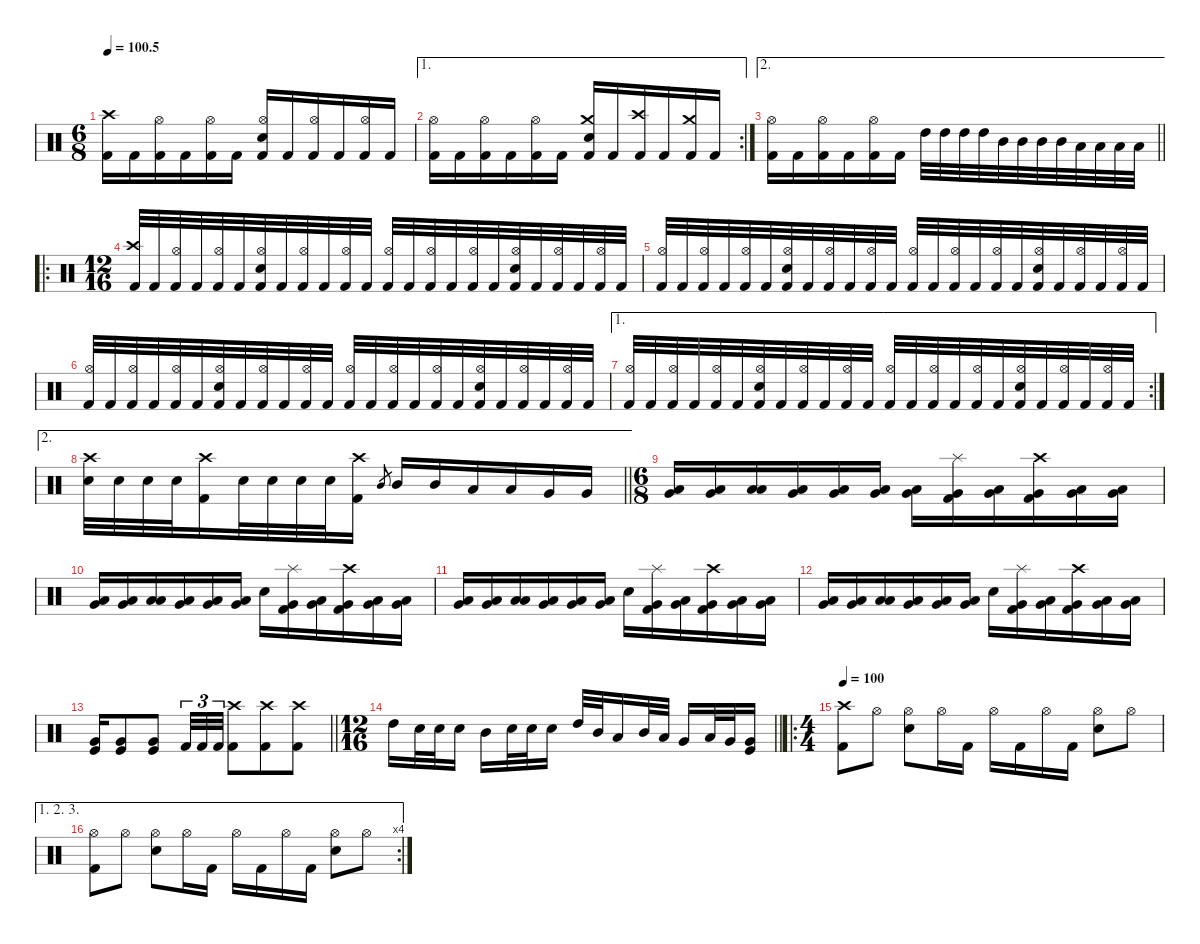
\defaultSystemsLayout 4
\hideDynamics
\bracketExtendMode nobrackets
\singleTrackTrackNamePolicy hidden
\multiTrackTrackNamePolicy hidden
\firstSystemTrackNameMode fullname
\firstSystemTrackNameOrientation horizontal
\otherSystemsTrackNameOrientation horizontal
\track ("Drums" "drm.") {instrument percussion}
\staff {score}
\articulation defaults
\ts (6 8)
\tempo
100.5
\accidentals auto
\clef neutral
\ottava regular
\simile none
\ks c
("Crash high (hit)" "Kick (hit) 2").16{dy f beam Down} "Kick (hit) 2".16{beam Down} ("Hi-Hat (open)" "Kick (hit) 2").16{dy mp beam Down} "Kick (hit) 2".16{dy f beam Down} ("Hi-Hat (open)" "Kick (hit) 2").16{dy mp beam Down} "Kick (hit) 2".16{dy f beam Down} ("Hi-Hat (open)" "Snare (hit) 2" "Kick (hit) 2").16{dy mp beam Up} "Kick (hit) 2".16{dy f beam Up} ("Hi-Hat (open)" "Kick (hit) 2").16{dy mp beam Up} "Kick (hit) 2".16{dy f beam Up} ("Hi-Hat (open)" "Kick (hit) 2").16{dy mp beam Up} "Kick (hit) 2".16{dy f beam Up} |
\ae 1
\rc 2
("Hi-Hat (open)" "Kick (hit) 2").16{dy mp beam Down} "Kick (hit) 2".16{dy f beam Down} ("Hi-Hat (open)" "Kick (hit) 2").16{dy mp beam Down} "Kick (hit) 2".16{dy f beam Down} ("Hi-Hat (open)" "Kick (hit) 2").16{dy mp beam Down} "Kick (hit) 2".16{dy f beam Down} ("Crash medium (hit)" "Snare (hit) 2" "Kick (hit) 2").16{beam Up} "Kick (hit) 2".16{beam Up} ("Crash high (hit)" "Kick (hit) 2").16{beam Up} "Kick (hit) 2".16{beam Up} ("Crash medium (hit)" "Kick (hit) 2").16{beam Up} "Kick (hit) 2".16{beam Up} |
\ae 2
\barLineRight lightlight
("Hi-Hat (open)" "Kick (hit) 2").16{dy mp beam Down} "Kick (hit) 2".16{dy f beam Down} ("Hi-Hat (open)" "Kick (hit) 2").16{dy mp beam Down} "Kick (hit) 2".16{dy f beam Down} ("Hi-Hat (open)" "Kick (hit) 2").16{dy mp beam Down} "Kick (hit) 2".16{dy f beam Down} "High Tom (hit)".32{beam Down} "High Tom (hit)".32{dy mf beam Down} "High Tom (hit)".32{dy f beam Down} "High Tom (hit)".32{dy mf beam Down} "Mid Tom (hit)".32{dy f beam Down} "Mid Tom (hit)".32{dy mf beam Down} "Mid Tom (hit)".32{dy f beam Down} "Mid Tom (hit)".32{dy mf beam Down} "Low Tom (hit)".32{dy f beam Down} "Low Tom (hit)".32{dy mf beam Down} "Low Tom (hit)".32{dy f beam Down} "Low Tom (hit)".32{dy mf beam Down} |
\ro
\ts (12 16)
\beaming (8 3 3)
("Crash high (hit)" "Kick (hit) 2").32{dy f beam Up} "Kick (hit) 2".32{beam Up} ("Hi-Hat (open)" "Kick (hit) 2").32{dy mp beam Up} "Kick (hit) 2".32{dy f beam Up} ("Hi-Hat (open)" "Kick (hit) 2").32{dy mp beam Up} "Kick (hit) 2".32{dy f beam Up} ("Hi-Hat (open)" "Snare (hit) 2" "Kick (hit) 2").32{dy mp beam Up} "Kick (hit) 2".32{dy f beam Up} ("Hi-Hat (open)" "Kick (hit) 2").32{dy mp beam Up} "Kick (hit) 2".32{dy f beam Up} ("Hi-Hat (open)" "Kick (hit) 2").32{dy mp beam Up} "Kick (hit) 2".32{dy f beam Up} ("Hi-Hat (open)" "Kick (hit) 2").32{dy mp beam Up} "Kick (hit) 2".32{dy f beam Up} ("Hi-Hat (open)" "Kick (hit) 2").32{dy mp beam Up} "Kick (hit) 2".32{dy f beam Up} ("Hi-Hat (open)" "Kick (hit) 2").32{dy mp beam Up} "Kick (hit) 2".32{dy f beam Up} ("Hi-Hat (open)" "Snare (hit) 2" "Kick (hit) 2").32{dy mp beam Up} "Kick (hit) 2".32{dy f beam Up} ("Hi-Hat (open)" "Kick (hit) 2").32{dy mp beam Up} "Kick (hit) 2".32{dy f beam Up} ("Hi-Hat (open)" "Kick (hit) 2").32{dy mp beam Up} "Kick (hit) 2".32{dy f beam Up} |
("Hi-Hat (open)" "Kick (hit) 2").32{dy mp beam Up} "Kick (hit) 2".32{dy f beam Up} ("Hi-Hat (open)" "Kick (hit) 2").32{dy mp beam Up} "Kick (hit) 2".32{dy f beam Up} ("Hi-Hat (open)" "Kick (hit) 2").32{dy mp beam Up} "Kick (hit) 2".32{dy f beam Up} ("Hi-Hat (open)" "Snare (hit) 2" "Kick (hit) 2").32{dy mp beam Up} "Kick (hit) 2".32{dy f beam Up} ("Hi-Hat (open)" "Kick (hit) 2").32{dy mp beam Up} "Kick (hit) 2".32{dy f beam Up} ("Hi-Hat (open)" "Kick (hit) 2").32{dy mp beam Up} "Kick (hit) 2".32{dy f beam Up} ("Hi-Hat (open)" "Kick (hit) 2").32{dy mp beam Up} "Kick (hit) 2".32{dy f beam Up} ("Hi-Hat (open)" "Kick (hit) 2").32{dy mp beam Up} "Kick (hit) 2".32{dy f beam Up} ("Hi-Hat (open)" "Kick (hit) 2").32{dy mp beam Up} "Kick (hit) 2".32{dy f beam Up} ("Hi-Hat (open)" "Snare (hit) 2" "Kick (hit) 2").32{dy mp beam Up} "Kick (hit) 2".32{dy f beam Up} ("Hi-Hat (open)" "Kick (hit) 2").32{dy mp beam Up} "Kick (hit) 2".32{dy f beam Up} ("Hi-Hat (open)" "Kick (hit) 2").32{dy mp beam Up} "Kick (hit) 2".32{dy f beam Up} |
("Hi-Hat (open)" "Kick (hit) 2").32{dy mp beam Up} "Kick (hit) 2".32{dy f beam Up} ("Hi-Hat (open)" "Kick (hit) 2").32{dy mp beam Up} "Kick (hit) 2".32{dy f beam Up} ("Hi-Hat (open)" "Kick (hit) 2").32{dy mp beam Up} "Kick (hit) 2".32{dy f beam Up} ("Hi-Hat (open)" "Snare (hit) 2" "Kick (hit) 2").32{dy mp beam Up} "Kick (hit) 2".32{dy f beam Up} ("Hi-Hat (open)" "Kick (hit) 2").32{dy mp beam Up} "Kick (hit) 2".32{dy f beam Up} ("Hi-Hat (open)" "Kick (hit) 2").32{dy mp beam Up} "Kick (hit) 2".32{dy f beam Up} ("Hi-Hat (open)" "Kick (hit) 2").32{dy mp beam Up} "Kick (hit) 2".32{dy f beam Up} ("Hi-Hat (open)" "Kick (hit) 2").32{dy mp beam Up} "Kick (hit) 2".32{dy f beam Up} ("Hi-Hat (open)" "Kick (hit) 2").32{dy mp beam Up} "Kick (hit) 2".32{dy f beam Up} ("Hi-Hat (open)" "Snare (hit) 2" "Kick (hit) 2").32{dy mp beam Up} "Kick (hit) 2".32{dy f beam Up} ("Hi-Hat (open)" "Kick (hit) 2").32{dy mp beam Up} "Kick (hit) 2".32{dy f beam Up} ("Hi-Hat (open)" "Kick (hit) 2").32{dy mp beam Up} "Kick (hit) 2".32{dy f beam Up} |
\ae 1
\rc 2
("Hi-Hat (open)" "Kick (hit) 2").32{dy mp beam Up} "Kick (hit) 2".32{dy f beam Up} ("Hi-Hat (open)" "Kick (hit) 2").32{dy mp beam Up} "Kick (hit) 2".32{dy f beam Up} ("Hi-Hat (open)" "Kick (hit) 2").32{dy mp beam Up} "Kick (hit) 2".32{dy f beam Up} ("Hi-Hat (open)" "Snare (hit) 2" "Kick (hit) 2").32{dy mp beam Up} "Kick (hit) 2".32{dy f beam Up} ("Hi-Hat (open)" "Kick (hit) 2").32{dy mp beam Up} "Kick (hit) 2".32{dy f beam Up} ("Hi-Hat (open)" "Kick (hit) 2").32{dy mp beam Up} "Kick (hit) 2".32{dy f beam Up} ("Hi-Hat (open)" "Kick (hit) 2").32{dy mp beam Up} "Kick (hit) 2".32{dy f beam Up} ("Hi-Hat (open)" "Kick (hit) 2").32{dy mp beam Up} "Kick (hit) 2".32{dy f beam Up} ("Hi-Hat (open)" "Kick (hit) 2").32{dy mp beam Up} "Kick (hit) 2".32{dy f beam Up} ("Hi-Hat (open)" "Snare (hit) 2" "Kick (hit) 2").32{dy mp beam Up} "Kick (hit) 2".32{dy f beam Up} ("Hi-Hat (open)" "Kick (hit) 2").32{dy mp beam Up} "Kick (hit) 2".32{dy f beam Up} ("Hi-Hat (open)" "Kick (hit) 2").32{dy mp beam Up} "Kick (hit) 2".32{dy f beam Up} |
\ae 2
\barLineRight lightlight
("Crash high (hit)" "Snare (hit) 2").32{dy mp beam Down} "Snare (hit) 2".32{beam Down} "Snare (hit) 2".32{dy mf beam Down} "Snare (hit) 2".32{beam Down} ("Crash high (hit)" "Kick (hit) 2").16{dy mp beam Down} "Snare (hit) 2".32{dy p beam Down} "Snare (hit) 2".32{dy mp beam Down} "Snare (hit) 2".32{dy mf beam Down} "Snare (hit) 2".32{beam Down} ("Crash high (hit)" "Kick (hit) 2").16{dy mp beam Down} "Mid Tom (hit)".8{gr dy mf beam Up} "Mid Tom (hit)".16{dy f beam Up} "Mid Tom (hit)".16{beam Up} "Low Tom (hit)".16{beam Up} "Low Tom (hit)".16{beam Up} "Very Low Tom (hit)".16{beam Up} "Very Low Tom (hit)".16{beam Up} |
\ts (6 8)
\beaming (8 3 3)
("Low Tom (hit)" "Very Low Tom (hit)").16{dy mf beam Up} ("Low Tom (hit)" "Very Low Tom (hit)").16{dy f beam Up} ("Low Tom (hit)" "Low Tom (hit)").16{dy mf beam Up} ("Low Tom (hit)" "Very Low Tom (hit)").16{dy f beam Up} ("Low Tom (hit)" "Very Low Tom (hit)").16{dy mp beam Up} ("Low Tom (hit)" "Very Low Tom (hit)").16{dy f beam Up} ("Low Tom (hit)" "Very Low Tom (hit)").16{dy mf beam Down} ("Splash (hit)" "Very Low Tom (hit)" "Kick (hit) 2").16{dy ff beam Down} ("Low Tom (hit)" "Very Low Tom (hit)").16{dy mp beam Down} ("Crash high (hit)" "Very Low Tom (hit)" "Kick (hit) 2").16{dy f beam Down} ("Low Tom (hit)" "Very Low Tom (hit)").16{dy mf beam Down} ("Low Tom (hit)" "Very Low Tom (hit)").16{dy f beam Down} |
("Low Tom (hit)" "Very Low Tom (hit)").16{dy mf beam Up} ("Low Tom (hit)" "Very Low Tom (hit)").16{dy f beam Up} ("Low Tom (hit)" "Low Tom (hit)").16{dy mf beam Up} ("Low Tom (hit)" "Very Low Tom (hit)").16{dy f beam Up} ("Low Tom (hit)" "Very Low Tom (hit)").16{dy mp beam Up} ("Low Tom (hit)" "Very Low Tom (hit)").16{dy f beam Up} "Snare (hit) 2".16{beam Down} ("Splash (hit)" "Very Low Tom (hit)" "Kick (hit) 2").16{dy ff beam Down} ("Low Tom (hit)" "Very Low Tom (hit)").16{dy mp beam Down} ("Crash high (hit)" "Very Low Tom (hit)" "Kick (hit) 2").16{dy f beam Down} ("Low Tom (hit)" "Very Low Tom (hit)").16{dy mf beam Down} ("Low Tom (hit)" "Very Low Tom (hit)").16{dy f beam Down} |
("Low Tom (hit)" "Very Low Tom (hit)").16{dy mf beam Up} ("Low Tom (hit)" "Very Low Tom (hit)").16{dy f beam Up} ("Low Tom (hit)" "Low Tom (hit)").16{dy mf beam Up} ("Low Tom (hit)" "Very Low Tom (hit)").16{dy f beam Up} ("Low Tom (hit)" "Very Low Tom (hit)").16{dy mp beam Up} ("Low Tom (hit)" "Very Low Tom (hit)").16{dy f beam Up} "Snare (hit) 2".16{beam Down} ("Splash (hit)" "Very Low Tom (hit)" "Kick (hit) 2").16{dy ff beam Down} ("Low Tom (hit)" "Very Low Tom (hit)").16{dy mp beam Down} ("Crash high (hit)" "Very Low Tom (hit)" "Kick (hit) 2").16{dy f beam Down} ("Low Tom (hit)" "Very Low Tom (hit)").16{dy mf beam Down} ("Low Tom (hit)" "Very Low Tom (hit)").16{dy f beam Down} |
("Low Tom (hit)" "Very Low Tom (hit)").16{dy mf beam Up} ("Low Tom (hit)" "Very Low Tom (hit)").16{dy f beam Up} ("Low Tom (hit)" "Low Tom (hit)").16{dy mf beam Up} ("Low Tom (hit)" "Very Low Tom (hit)").16{dy f beam Up} ("Low Tom (hit)" "Very Low Tom (hit)").16{dy mp beam Up} ("Low Tom (hit)" "Very Low Tom (hit)").16{dy f beam Up} "Snare (hit) 2".16{beam Down} ("Splash (hit)" "Very Low Tom (hit)" "Kick (hit) 2").16{dy ff beam Down} ("Low Tom (hit)" "Very Low Tom (hit)").16{dy mp beam Down} ("Crash high (hit)" "Very Low Tom (hit)" "Kick (hit) 2").16{dy f beam Down} ("Low Tom (hit)" "Very Low Tom (hit)").16{dy mf beam Down} ("Low Tom (hit)" "Very Low Tom (hit)").16{dy f beam Down} |
\barLineRight lightlight
("Very Low Tom (hit)" "Kick (hit)").16{dy ff beam Up} ("Very Low Tom (hit)" "Kick (hit)").8{beam Up} ("Very Low Tom (hit)" "Kick (hit)").8{beam Up} "Kick (hit) 2".32{tu (3 2) dy f beam Up} "Kick (hit) 2".32{tu (3 2) beam Up} "Kick (hit) 2".32{tu (3 2) beam Up} ("Crash high (hit)" "Kick (hit) 2").8{beam Down} ("Crash high (hit)" "Kick (hit) 2").8{beam Down} ("Crash high (hit)" "Kick (hit) 2").8{beam Down} |
\ts (12 16)
\beaming (8 3 3)
\barLineRight lightlight "High Tom (hit)".16{beam Down beam merge} "Snare (hit) 2".32{beam Down beam merge} "Snare (hit) 2".32{dy mf beam Down beam merge} "Snare (hit) 2".16{dy f beam Down beam split} "Mid Tom (hit)".16{dy ff beam Down beam merge} "Snare (hit) 2".32{dy f beam Down beam merge} "Snare (hit) 2".32{dy mf beam Down beam merge} "Snare (hit) 2".16{dy f beam Down} "High Tom (hit)".32{beam Up beam merge} "Mid Tom (hit)".32{dy mf beam Up beam merge} "Low Tom (hit)".16{dy f beam Up} "Mid Tom (hit)".32{beam Up beam merge} "Low Tom (hit)".32{dy mf beam Up beam split} "Very Low Tom (hit)".16{dy f beam Up beam merge} "Low Tom (hit)".32{beam Up beam merge} "Very Low Tom (hit)".32{dy mf beam Up beam merge}
("Very Low Tom (hit)" "Kick (hit)").16{beam Up} |
\ro
\ts (4 4)
\beaming (8 2 2 2 2)
\tempo 100
("Crash high (hit)" "Kick (hit) 2").8{dy f beam Down} "Hi-Hat (open)".8{beam Down} ("Hi-Hat (open)" "Snare (hit) 2").8{beam Down} "Hi-Hat (open)".16{beam Down} "Kick (hit) 2".16{beam Down} "Hi-Hat (open)".16{beam Down} "Kick (hit) 2".16{beam Down} "Hi-Hat (open)".16{beam Down} "Kick (hit) 2".16{beam Down} ("Hi-Hat (open)" "Snare (hit) 2").8{beam Down} "Hi-Hat (open)".8{beam Down} |
\ae (1 2 3)
\rc 4
("Hi-Hat (open)" "Kick (hit) 2").8{beam Down} "Hi-Hat (open)".8{beam Down} ("Hi-Hat (open)" "Snare (hit) 2").8{beam Down} "Hi-Hat (open)".16{beam Down} "Kick (hit) 2".16{beam Down} "Hi-Hat (open)".16{beam Down} "Kick (hit) 2".16{beam Down} "Hi-Hat (open)".16{beam Down} "Kick (hit) 2".16{beam Down} ("Hi-Hat (open)" "Snare (hit) 2").8{beam Down} "Hi-Hat (open)".8{beam Down}
